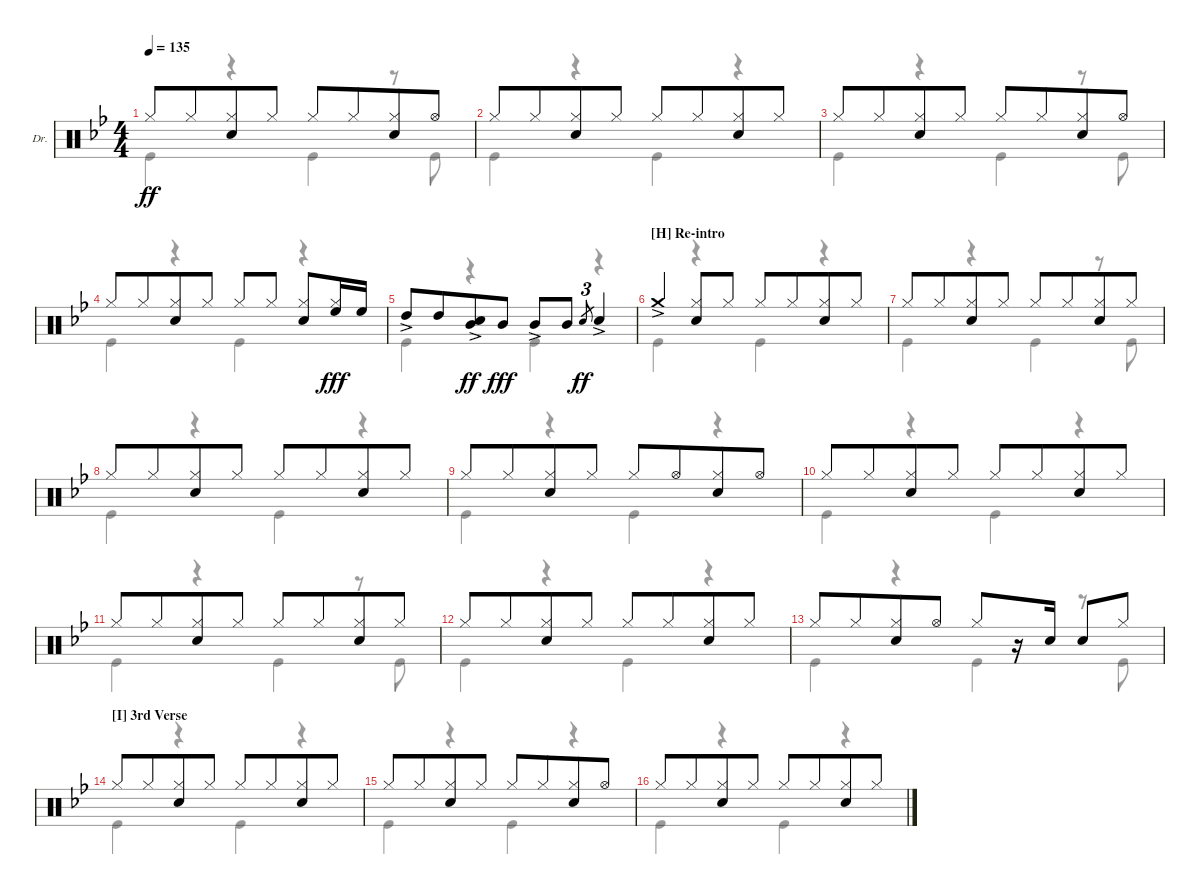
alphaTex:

\defaultSystemsLayout 4
\bracketExtendMode groupsimilarinstruments
\firstSystemTrackNameOrientation horizontal
\otherSystemsTrackNameOrientation horizontal
\track ("Drums" "Dr.") {instrument percussion}
\staff {score}
\articulation defaults
\voice
\ts (4 4)
\tempo 135
\clef neutral
\ks bb "Hi-Hat (closed)".8{dy ff beam merge} "Hi-Hat (closed)".8{beam merge}
("Hi-Hat (closed)" "Snare (hit) 2").8{beam merge} "Hi-Hat (closed)".8 "Hi-Hat (closed)".8{beam merge} "Hi-Hat (closed)".8{beam merge} ("Hi-Hat (closed)" "Snare (hit) 2").8{beam merge} "Hi-Hat (open)".8 |
"Hi-Hat (closed)".8{beam merge} "Hi-Hat (closed)".8{beam merge} ("Hi-Hat (closed)" "Snare (hit) 2").8{beam merge} "Hi-Hat (closed)".8 "Hi-Hat (closed)".8{beam merge} "Hi-Hat (closed)".8{beam merge} ("Hi-Hat (closed)" "Snare (hit) 2").8{beam merge} "Hi-Hat (closed)".8 |
"Hi-Hat (closed)".8{beam merge} "Hi-Hat (closed)".8{beam merge} ("Hi-Hat (closed)" "Snare (hit) 2").8{beam merge} "Hi-Hat (closed)".8 "Hi-Hat (closed)".8{beam merge} "Hi-Hat (closed)".8{beam merge} ("Hi-Hat (closed)" "Snare (hit) 2").8{beam merge} "Hi-Hat (open)".8 |
"Hi-Hat (closed)".8{beam merge} "Hi-Hat (closed)".8{beam merge} ("Hi-Hat (closed)" "Snare (hit) 2").8{beam merge} "Hi-Hat (closed)".8 "Hi-Hat (closed)".8{beam merge} "Hi-Hat (closed)".8{beam split} ("Hi-Hat (closed)" "Snare (hit) 2").8{beam merge} ("Hi-Hat (closed)" "High Floor Tom (hit)").16{dy fff beam merge} "High Floor Tom (hit)".16 |
"High Tom (hit)"{ac}.8 "High Tom (hit)".8{beam merge} ("Snare (hit) 2"{ac} "Mid Tom (hit)").8{dy ff} "Mid Tom (hit)".8{dy fff} "Mid Tom (hit)"{ac}.8 "Mid Tom (hit)".8 "Snare (hit) 2".8{tu (3 2) gr dy ff} "Snare (hit) 2"{ac}.4 |
\section ("H" "Re-intro")
"Crash medium (hit)"{ac}.4{beam merge} ("Hi-Hat (closed)" "Snare (hit) 2").8{beam merge} "Hi-Hat (closed)".8 "Hi-Hat (closed)".8{beam merge} "Hi-Hat (closed)".8{beam merge} ("Hi-Hat (closed)" "Snare (hit) 2").8{beam merge} "Hi-Hat (closed)".8 |
"Hi-Hat (closed)".8{beam merge} "Hi-Hat (closed)".8{beam merge} ("Hi-Hat (closed)" "Snare (hit) 2").8{beam merge} "Hi-Hat (closed)".8 "Hi-Hat (closed)".8{beam merge} "Hi-Hat (closed)".8{beam merge} ("Hi-Hat (closed)" "Snare (hit) 2").8{beam merge} "Hi-Hat (closed)".8 |
"Hi-Hat (closed)".8{beam merge} "Hi-Hat (closed)".8{beam merge} ("Hi-Hat (closed)" "Snare (hit) 2").8{beam merge} "Hi-Hat (closed)".8 "Hi-Hat (closed)".8{beam merge} "Hi-Hat (closed)".8{beam merge} ("Hi-Hat (closed)" "Snare (hit) 2").8{beam merge} "Hi-Hat (closed)".8 |
"Hi-Hat (closed)".8{beam merge} "Hi-Hat (closed)".8{beam merge} ("Hi-Hat (closed)" "Snare (hit) 2").8{beam merge} "Hi-Hat (closed)".8 "Hi-Hat (closed)".8{beam merge} "Hi-Hat (open)".8{beam merge} ("Hi-Hat (closed)" "Snare (hit) 2").8{beam merge} "Hi-Hat (open)".8 |
"Hi-Hat (closed)".8{beam merge} "Hi-Hat (closed)".8{beam merge} ("Hi-Hat (closed)" "Snare (hit) 2").8{beam merge} "Hi-Hat (closed)".8 "Hi-Hat (closed)".8{beam merge} "Hi-Hat (closed)".8{beam merge} ("Hi-Hat (closed)" "Snare (hit) 2").8{beam merge} "Hi-Hat (closed)".8 |
"Hi-Hat (closed)".8{beam merge} "Hi-Hat (closed)".8{beam merge} ("Hi-Hat (closed)" "Snare (hit) 2").8{beam merge} "Hi-Hat (closed)".8 "Hi-Hat (closed)".8{beam merge} "Hi-Hat (closed)".8{beam merge} ("Hi-Hat (closed)" "Snare (hit) 2").8{beam merge} "Hi-Hat (closed)".8 |
"Hi-Hat (closed)".8{beam merge} "Hi-Hat (closed)".8{beam merge} ("Hi-Hat (closed)" "Snare (hit) 2").8{beam merge} "Hi-Hat (closed)".8 "Hi-Hat (closed)".8{beam merge} "Hi-Hat (closed)".8{beam merge} ("Hi-Hat (closed)" "Snare (hit) 2").8{beam merge} "Hi-Hat (closed)".8 |
"Hi-Hat (closed)".8{beam merge} "Hi-Hat (closed)".8{beam merge} ("Hi-Hat (closed)" "Snare (hit) 2").8{beam merge} "Hi-Hat (open)".8 "Hi-Hat (closed)".8{beam merge} r.16{beam merge} "Snare (hit) 2".16 "Snare (hit) 2".8{beam merge} "Hi-Hat (closed)".8 |
\section ("I" "3rd Verse")
"Hi-Hat (closed)".8{beam merge} "Hi-Hat (closed)".8{beam merge} ("Hi-Hat (closed)" "Snare (hit) 2").8{beam merge} "Hi-Hat (closed)".8 "Hi-Hat (closed)".8{beam merge} "Hi-Hat (closed)".8{beam merge} ("Hi-Hat (closed)" "Snare (hit) 2").8{beam merge} "Hi-Hat (closed)".8 |
"Hi-Hat (closed)".8{beam merge} "Hi-Hat (closed)".8{beam merge} ("Hi-Hat (closed)" "Snare (hit) 2").8{beam merge} "Hi-Hat (closed)".8 "Hi-Hat (closed)".8{beam merge} "Hi-Hat (closed)".8{beam merge} ("Hi-Hat (closed)" "Snare (hit) 2").8{beam merge} "Hi-Hat (open)".8 |
"Hi-Hat (closed)".8{beam merge} "Hi-Hat (closed)".8{beam merge} ("Hi-Hat (closed)" "Snare (hit) 2").8{beam merge} "Hi-Hat (closed)".8 "Hi-Hat (closed)".8{beam merge} "Hi-Hat (closed)".8{beam merge} ("Hi-Hat (closed)" "Snare (hit) 2").8{beam merge} "Hi-Hat (closed)".8
\voice
\clef neutral
\ottava regular
\simile none
\ks bb "Kick (hit)".4{dy ff}
r.4 "Kick (hit)".4 r.8 "Kick (hit)".8 |
"Kick (hit)".4 r.4 "Kick (hit)".4 r.4 |
"Kick (hit)".4 r.4 "Kick (hit)".4 r.8 "Kick (hit)".8 |
"Kick (hit)".4 r.4 "Kick (hit)".4 r.4 |
"Kick (hit)".4 r.4 "Kick (hit)".4 r.4 |
"Kick (hit)".4 r.4 "Kick (hit)".4 r.4 |
"Kick (hit)".4 r.4 "Kick (hit)".4 r.8 "Kick (hit)".8 |
"Kick (hit)".4 r.4 "Kick (hit)".4 r.4 |
"Kick (hit)".4 r.4 "Kick (hit)".4 r.4 |
"Kick (hit)".4 r.4 "Kick (hit)".4 r.4 |
"Kick (hit)".4 r.4 "Kick (hit)".4 r.8 "Kick (hit)".8 |
"Kick (hit)".4 r.4 "Kick (hit)".4 r.4 |
"Kick (hit)".4 r.4 "Kick (hit)".4 r.8 "Kick (hit)".8 |
"Kick (hit)".4 r.4 "Kick (hit)".4 r.4 |
"Kick (hit)".4 r.4 "Kick (hit)".4 r.4 |
"Kick (hit)".4 r.4 "Kick (hit)".4 r.4
